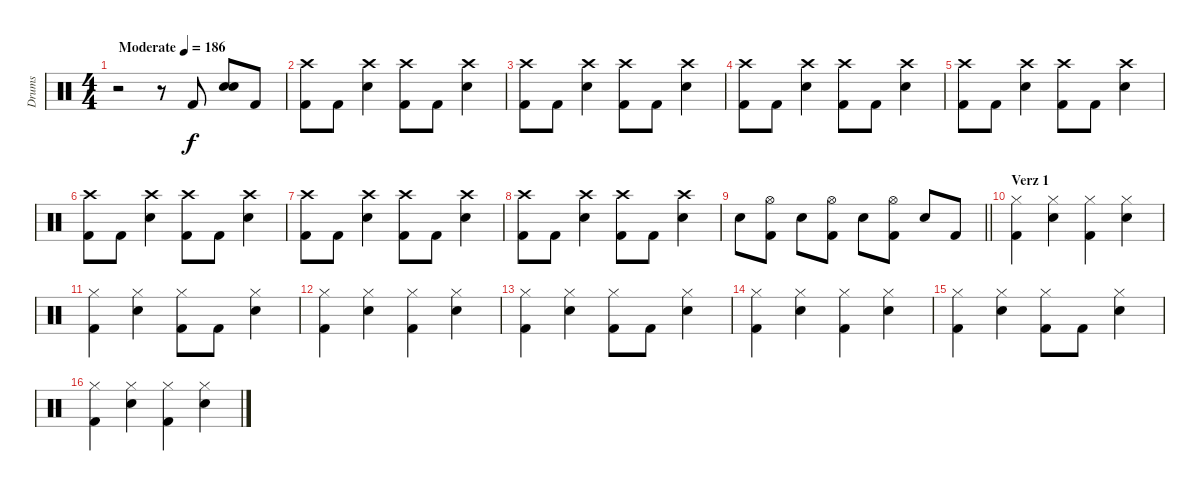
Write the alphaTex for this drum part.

\track ("Drums" "Drums") {instrument percussion}
\staff {score}
\articulation defaults
\ts (4 4)
\tempo (186 "Moderate")
\clef neutral
\ks c
r.2{dy f} r.8 "Kick (hit) 2".8 ("Snare (hit) 2" "Snare (hit) 2").8 "Kick (hit) 2".8 |
("Crash high (hit)" "Kick (hit) 2").8 "Kick (hit) 2".8 ("Crash high (hit)" "Snare (hit) 2").4 ("Crash high (hit)" "Kick (hit) 2").8 "Kick (hit) 2".8 ("Crash high (hit)" "Snare (hit) 2").4 |
("Crash high (hit)" "Kick (hit) 2").8 "Kick (hit) 2".8 ("Crash high (hit)" "Snare (hit) 2").4 ("Crash high (hit)" "Kick (hit) 2").8 "Kick (hit) 2".8 ("Crash high (hit)" "Snare (hit) 2").4 |
("Crash high (hit)" "Kick (hit) 2").8 "Kick (hit) 2".8 ("Crash high (hit)" "Snare (hit) 2").4 ("Crash high (hit)" "Kick (hit) 2").8 "Kick (hit) 2".8 ("Crash high (hit)" "Snare (hit) 2").4 |
("Crash high (hit)" "Kick (hit) 2").8 "Kick (hit) 2".8 ("Crash high (hit)" "Snare (hit) 2").4 ("Crash high (hit)" "Kick (hit) 2").8 "Kick (hit) 2".8 ("Crash high (hit)" "Snare (hit) 2").4 |
("Crash high (hit)" "Kick (hit) 2").8 "Kick (hit) 2".8 ("Crash high (hit)" "Snare (hit) 2").4 ("Crash high (hit)" "Kick (hit) 2").8 "Kick (hit) 2".8 ("Crash high (hit)" "Snare (hit) 2").4 |
("Crash high (hit)" "Kick (hit) 2").8 "Kick (hit) 2".8 ("Crash high (hit)" "Snare (hit) 2").4 ("Crash high (hit)" "Kick (hit) 2").8 "Kick (hit) 2".8 ("Crash high (hit)" "Snare (hit) 2").4 |
("Crash high (hit)" "Kick (hit) 2").8 "Kick (hit) 2".8 ("Crash high (hit)" "Snare (hit) 2").4 ("Crash high (hit)" "Kick (hit) 2").8 "Kick (hit) 2".8 ("Crash high (hit)" "Snare (hit) 2").4 |
\barLineRight lightlight "Snare (hit) 2".8
("Hi-Hat (open)" "Kick (hit) 2").8 "Snare (hit) 2".8 ("Hi-Hat (open)" "Kick (hit) 2").8 "Snare (hit) 2".8 ("Hi-Hat (open)" "Kick (hit) 2").8 "Snare (hit) 2".8 "Kick (hit) 2".8 |
\section ("" "Verz 1")
("Hi-Hat (closed)" "Kick (hit) 2").4 ("Hi-Hat (closed)" "Snare (hit) 2").4 ("Hi-Hat (closed)" "Kick (hit) 2").4 ("Hi-Hat (closed)" "Snare (hit) 2").4 |
("Hi-Hat (closed)" "Kick (hit) 2").4 ("Hi-Hat (closed)" "Snare (hit) 2").4 ("Hi-Hat (closed)" "Kick (hit) 2").8 "Kick (hit) 2".8 ("Hi-Hat (closed)" "Snare (hit) 2").4 |
("Hi-Hat (closed)" "Kick (hit) 2").4 ("Hi-Hat (closed)" "Snare (hit) 2").4 ("Hi-Hat (closed)" "Kick (hit) 2").4 ("Hi-Hat (closed)" "Snare (hit) 2").4 |
("Hi-Hat (closed)" "Kick (hit) 2").4 ("Hi-Hat (closed)" "Snare (hit) 2").4 ("Hi-Hat (closed)" "Kick (hit) 2").8 "Kick (hit) 2".8 ("Hi-Hat (closed)" "Snare (hit) 2").4 |
("Hi-Hat (closed)" "Kick (hit) 2").4 ("Hi-Hat (closed)" "Snare (hit) 2").4 ("Hi-Hat (closed)" "Kick (hit) 2").4 ("Hi-Hat (closed)" "Snare (hit) 2").4 |
("Hi-Hat (closed)" "Kick (hit) 2").4 ("Hi-Hat (closed)" "Snare (hit) 2").4 ("Hi-Hat (closed)" "Kick (hit) 2").8 "Kick (hit) 2".8 ("Hi-Hat (closed)" "Snare (hit) 2").4 |
("Hi-Hat (closed)" "Kick (hit) 2").4 ("Hi-Hat (closed)" "Snare (hit) 2").4 ("Hi-Hat (closed)" "Kick (hit) 2").4 ("Hi-Hat (closed)" "Snare (hit) 2").4
